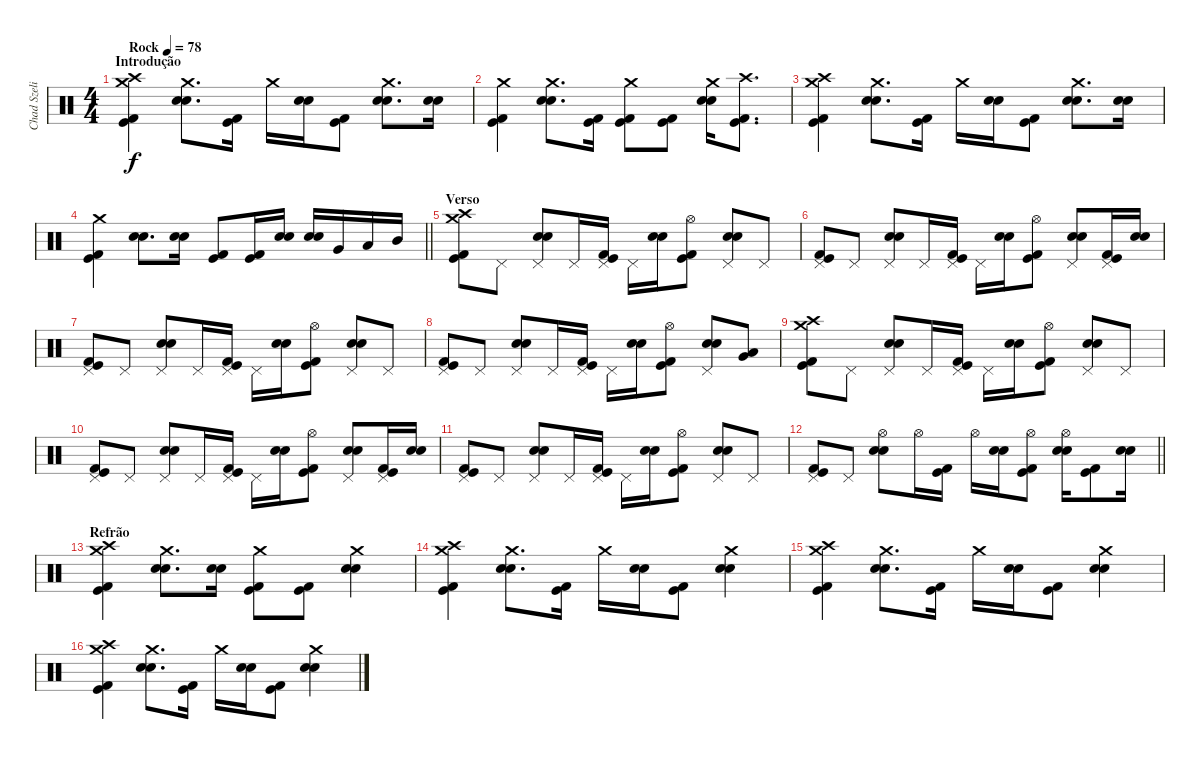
\track ("Chad Szeliga" "Chad Szeli") {instrument percussion}
\staff {score}
\articulation defaults
\ts (4 4)
\section ("" "Introdução")
\tempo (78 "Rock")
\clef neutral
\ks c
("Crash high (hit)" "Kick (hit) 2" "Kick (hit)" "Crash medium (hit)").4{dy f} ("Crash medium (hit)" "Snare (hit) 2" "Snare (hit) 2").8{d} ("Kick (hit) 2" "Kick (hit)").16 "Crash medium (hit)".16 ("Snare (hit) 2" "Snare (hit) 2").16 ("Kick (hit) 2" "Kick (hit)").8 ("Crash medium (hit)" "Snare (hit) 2" "Snare (hit) 2").8{d} ("Snare (hit) 2" "Snare (hit) 2").16 |
("Crash medium (hit)" "Kick (hit) 2" "Kick (hit)").4 ("Crash medium (hit)" "Snare (hit) 2" "Snare (hit) 2").8{d} ("Kick (hit) 2" "Kick (hit)").16 ("Crash medium (hit)" "Kick (hit) 2" "Kick (hit)").8 ("Kick (hit) 2" "Kick (hit)").8 ("Crash medium (hit)" "Snare (hit) 2" "Snare (hit) 2").16 ("Crash high (hit)" "Kick (hit) 2" "Kick (hit)").8{d} |
("Crash high (hit)" "Kick (hit) 2" "Kick (hit)" "Crash medium (hit)").4 ("Crash medium (hit)" "Snare (hit) 2" "Snare (hit) 2").8{d} ("Kick (hit) 2" "Kick (hit)").16 "Crash medium (hit)".16 ("Snare (hit) 2" "Snare (hit) 2").16 ("Kick (hit) 2" "Kick (hit)").8 ("Crash medium (hit)" "Snare (hit) 2" "Snare (hit) 2").8{d} ("Snare (hit) 2" "Snare (hit) 2").16 |
\barLineRight lightlight
("Crash medium (hit)" "Kick (hit) 2" "Kick (hit)").4 ("Snare (hit) 2" "Snare (hit) 2").8{d} ("Snare (hit) 2" "Snare (hit) 2").16 ("Kick (hit) 2" "Kick (hit)").8 ("Kick (hit) 2" "Kick (hit)").16 ("Snare (hit) 2" "Snare (hit) 2").16 ("Snare (hit) 2" "Snare (hit) 2").16 "Very Low Tom (hit)".16 "Low Tom (hit)".16 "Mid Tom (hit)".16 |
\section ("" "Verso")
("Crash high (hit)" "Kick (hit) 2" "Kick (hit)" "Crash medium (hit)").8 "Pedal Hi-Hat (hit)".8 ("Snare (hit) 2" "Snare (hit) 2" "Pedal Hi-Hat (hit)").8 "Pedal Hi-Hat (hit)".16 ("Kick (hit) 2" "Kick (hit)" "Pedal Hi-Hat (hit)").16 "Pedal Hi-Hat (hit)".16 ("Snare (hit) 2" "Snare (hit) 2").16 ("Kick (hit) 2" "Kick (hit)" "Hi-Hat (open)").8 ("Snare (hit) 2" "Snare (hit) 2" "Pedal Hi-Hat (hit)").8 "Pedal Hi-Hat (hit)".8 |
("Kick (hit) 2" "Kick (hit)" "Pedal Hi-Hat (hit)").8 "Pedal Hi-Hat (hit)".8 ("Snare (hit) 2" "Snare (hit) 2" "Pedal Hi-Hat (hit)").8 "Pedal Hi-Hat (hit)".16 ("Kick (hit) 2" "Kick (hit)" "Pedal Hi-Hat (hit)").16 "Pedal Hi-Hat (hit)".16 ("Snare (hit) 2" "Snare (hit) 2").16 ("Kick (hit) 2" "Kick (hit)" "Hi-Hat (open)").8 ("Snare (hit) 2" "Snare (hit) 2" "Pedal Hi-Hat (hit)").8 ("Kick (hit) 2" "Kick (hit)" "Pedal Hi-Hat (hit)").16 ("Snare (hit) 2" "Snare (hit) 2").16 |
("Kick (hit) 2" "Kick (hit)" "Pedal Hi-Hat (hit)").8 "Pedal Hi-Hat (hit)".8 ("Snare (hit) 2" "Snare (hit) 2" "Pedal Hi-Hat (hit)").8 "Pedal Hi-Hat (hit)".16 ("Kick (hit) 2" "Kick (hit)" "Pedal Hi-Hat (hit)").16 "Pedal Hi-Hat (hit)".16 ("Snare (hit) 2" "Snare (hit) 2").16 ("Kick (hit) 2" "Kick (hit)" "Hi-Hat (open)").8 ("Snare (hit) 2" "Snare (hit) 2" "Pedal Hi-Hat (hit)").8 "Pedal Hi-Hat (hit)".8 |
("Kick (hit) 2" "Kick (hit)" "Pedal Hi-Hat (hit)").8 "Pedal Hi-Hat (hit)".8 ("Snare (hit) 2" "Snare (hit) 2" "Pedal Hi-Hat (hit)").8 "Pedal Hi-Hat (hit)".16 ("Kick (hit) 2" "Kick (hit)" "Pedal Hi-Hat (hit)").16 "Pedal Hi-Hat (hit)".16 ("Snare (hit) 2" "Snare (hit) 2").16 ("Kick (hit) 2" "Kick (hit)" "Hi-Hat (open)").8 ("Snare (hit) 2" "Snare (hit) 2" "Pedal Hi-Hat (hit)").8 ("Very Low Tom (hit)" "Low Tom (hit)").8 |
("Crash high (hit)" "Kick (hit) 2" "Kick (hit)" "Crash medium (hit)").8 "Pedal Hi-Hat (hit)".8 ("Snare (hit) 2" "Snare (hit) 2" "Pedal Hi-Hat (hit)").8 "Pedal Hi-Hat (hit)".16 ("Kick (hit) 2" "Kick (hit)" "Pedal Hi-Hat (hit)").16 "Pedal Hi-Hat (hit)".16 ("Snare (hit) 2" "Snare (hit) 2").16 ("Kick (hit) 2" "Kick (hit)" "Hi-Hat (open)").8 ("Snare (hit) 2" "Snare (hit) 2" "Pedal Hi-Hat (hit)").8 "Pedal Hi-Hat (hit)".8 |
("Kick (hit) 2" "Kick (hit)" "Pedal Hi-Hat (hit)").8 "Pedal Hi-Hat (hit)".8 ("Snare (hit) 2" "Snare (hit) 2" "Pedal Hi-Hat (hit)").8 "Pedal Hi-Hat (hit)".16 ("Kick (hit) 2" "Kick (hit)" "Pedal Hi-Hat (hit)").16 "Pedal Hi-Hat (hit)".16 ("Snare (hit) 2" "Snare (hit) 2").16 ("Kick (hit) 2" "Kick (hit)" "Hi-Hat (open)").8 ("Snare (hit) 2" "Snare (hit) 2" "Pedal Hi-Hat (hit)").8 ("Kick (hit) 2" "Kick (hit)" "Pedal Hi-Hat (hit)").16 ("Snare (hit) 2" "Snare (hit) 2").16 |
("Kick (hit) 2" "Kick (hit)" "Pedal Hi-Hat (hit)").8 "Pedal Hi-Hat (hit)".8 ("Snare (hit) 2" "Snare (hit) 2" "Pedal Hi-Hat (hit)").8 "Pedal Hi-Hat (hit)".16 ("Kick (hit) 2" "Kick (hit)" "Pedal Hi-Hat (hit)").16 "Pedal Hi-Hat (hit)".16 ("Snare (hit) 2" "Snare (hit) 2").16 ("Kick (hit) 2" "Kick (hit)" "Hi-Hat (open)").8 ("Snare (hit) 2" "Snare (hit) 2" "Pedal Hi-Hat (hit)").8 "Pedal Hi-Hat (hit)".8 |
\barLineRight lightlight
("Kick (hit) 2" "Kick (hit)" "Pedal Hi-Hat (hit)").8 "Pedal Hi-Hat (hit)".8 ("Snare (hit) 2" "Snare (hit) 2" "Hi-Hat (open)").8 "Hi-Hat (open)".16 ("Kick (hit) 2" "Kick (hit)").16 "Hi-Hat (open)".16 ("Snare (hit) 2" "Snare (hit) 2").16 ("Kick (hit) 2" "Kick (hit)" "Hi-Hat (open)").8 ("Snare (hit) 2" "Snare (hit) 2" "Hi-Hat (open)").16 ("Kick (hit) 2" "Kick (hit)").8 ("Snare (hit) 2" "Snare (hit) 2").16 |
\section ("" "Refrão")
("Crash high (hit)" "Kick (hit) 2" "Kick (hit)" "Crash medium (hit)").4 ("Crash medium (hit)" "Snare (hit) 2" "Snare (hit) 2").8{d} ("Snare (hit) 2" "Snare (hit) 2").16 ("Crash medium (hit)" "Kick (hit) 2" "Kick (hit)").8 ("Kick (hit) 2" "Kick (hit)").8 ("Crash medium (hit)" "Snare (hit) 2" "Snare (hit) 2").4 |
("Crash high (hit)" "Kick (hit) 2" "Kick (hit)" "Crash medium (hit)").4 ("Crash medium (hit)" "Snare (hit) 2" "Snare (hit) 2").8{d} ("Kick (hit) 2" "Kick (hit)").16 "Crash medium (hit)".16 ("Snare (hit) 2" "Snare (hit) 2").16 ("Kick (hit) 2" "Kick (hit)").8 ("Crash medium (hit)" "Snare (hit) 2" "Snare (hit) 2").4 |
("Crash high (hit)" "Kick (hit) 2" "Kick (hit)" "Crash medium (hit)").4 ("Crash medium (hit)" "Snare (hit) 2" "Snare (hit) 2").8{d} ("Kick (hit) 2" "Kick (hit)").16 "Crash medium (hit)".16 ("Snare (hit) 2" "Snare (hit) 2").16 ("Kick (hit) 2" "Kick (hit)").8 ("Crash medium (hit)" "Snare (hit) 2" "Snare (hit) 2").4 |
("Crash high (hit)" "Kick (hit) 2" "Kick (hit)" "Crash medium (hit)").4 ("Crash medium (hit)" "Snare (hit) 2" "Snare (hit) 2").8{d} ("Kick (hit) 2" "Kick (hit)").16 "Crash medium (hit)".16 ("Snare (hit) 2" "Snare (hit) 2").16 ("Kick (hit) 2" "Kick (hit)").8 ("Crash medium (hit)" "Snare (hit) 2" "Snare (hit) 2").4
